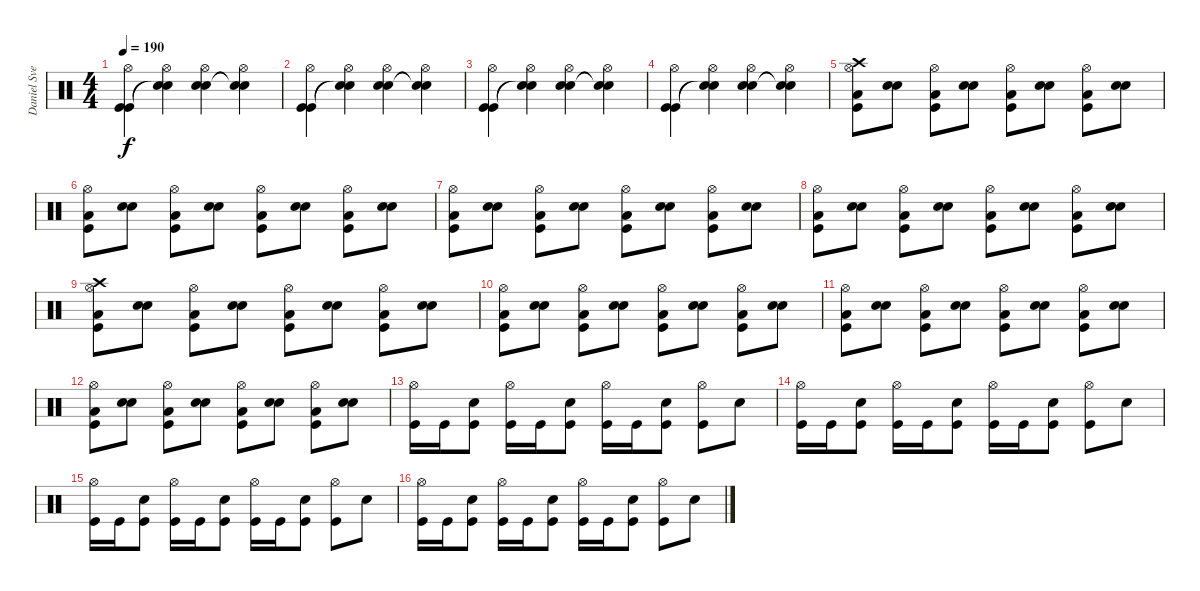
\track ("Daniel Svensson" "Daniel Sve") {instrument percussion}
\staff {score}
\articulation defaults
\ts (4 4)
\tempo 190
\clef neutral
\ks c
("Hi-Hat (open)" "Kick (hit)" "Kick (hit)").4{dy f} ("Hi-Hat (open)" "Snare (hit)"{t} "Snare (hit)"{t}).4 ("Hi-Hat (open)" "Electric Snare (hit)" "Electric Snare (hit)").4 ("Hi-Hat (open)" "Snare (hit)"{t} "Snare (hit)"{t}).4 |
("Hi-Hat (open)" "Kick (hit)" "Kick (hit)").4 ("Hi-Hat (open)" "Snare (hit)"{t} "Snare (hit)"{t}).4 ("Hi-Hat (open)" "Electric Snare (hit)" "Electric Snare (hit)").4 ("Hi-Hat (open)" "Snare (hit)"{t} "Snare (hit)"{t}).4 |
("Hi-Hat (open)" "Kick (hit)" "Kick (hit)").4 ("Hi-Hat (open)" "Snare (hit)"{t} "Snare (hit)"{t}).4 ("Hi-Hat (open)" "Electric Snare (hit)" "Electric Snare (hit)").4 ("Hi-Hat (open)" "Snare (hit)"{t} "Snare (hit)"{t}).4 |
("Hi-Hat (open)" "Kick (hit)" "Kick (hit)").4 ("Hi-Hat (open)" "Snare (hit)"{t} "Snare (hit)"{t}).4 ("Hi-Hat (open)" "Electric Snare (hit)" "Electric Snare (hit)").4 ("Hi-Hat (open)" "Snare (hit)"{t} "Snare (hit)"{t}).4 |
("Crash high (hit)" "Hi-Hat (open)" "Low Floor Tom (hit)" "Kick (hit)").8 ("Electric Snare (hit)" "Electric Snare (hit)").8 ("Hi-Hat (open)" "Low Floor Tom (hit)" "Kick (hit)").8 ("Electric Snare (hit)" "Electric Snare (hit)").8 ("Hi-Hat (open)" "Low Floor Tom (hit)" "Kick (hit)").8 ("Electric Snare (hit)" "Electric Snare (hit)").8 ("Hi-Hat (open)" "Low Floor Tom (hit)" "Kick (hit)").8 ("Electric Snare (hit)" "Electric Snare (hit)").8 |
("Hi-Hat (open)" "Low Floor Tom (hit)" "Kick (hit)").8 ("Electric Snare (hit)" "Electric Snare (hit)").8 ("Hi-Hat (open)" "Low Floor Tom (hit)" "Kick (hit)").8 ("Electric Snare (hit)" "Electric Snare (hit)").8 ("Hi-Hat (open)" "Low Floor Tom (hit)" "Kick (hit)").8 ("Electric Snare (hit)" "Electric Snare (hit)").8 ("Hi-Hat (open)" "Low Floor Tom (hit)" "Kick (hit)").8 ("Electric Snare (hit)" "Electric Snare (hit)").8 |
("Hi-Hat (open)" "Low Floor Tom (hit)" "Kick (hit)").8 ("Electric Snare (hit)" "Electric Snare (hit)").8 ("Hi-Hat (open)" "Low Floor Tom (hit)" "Kick (hit)").8 ("Electric Snare (hit)" "Electric Snare (hit)").8 ("Hi-Hat (open)" "Low Floor Tom (hit)" "Kick (hit)").8 ("Electric Snare (hit)" "Electric Snare (hit)").8 ("Hi-Hat (open)" "Low Floor Tom (hit)" "Kick (hit)").8 ("Electric Snare (hit)" "Electric Snare (hit)").8 |
("Hi-Hat (open)" "Low Floor Tom (hit)" "Kick (hit)").8 ("Electric Snare (hit)" "Electric Snare (hit)").8 ("Hi-Hat (open)" "Low Floor Tom (hit)" "Kick (hit)").8 ("Electric Snare (hit)" "Electric Snare (hit)").8 ("Hi-Hat (open)" "Low Floor Tom (hit)" "Kick (hit)").8 ("Electric Snare (hit)" "Electric Snare (hit)").8 ("Hi-Hat (open)" "Low Floor Tom (hit)" "Kick (hit)").8 ("Electric Snare (hit)" "Electric Snare (hit)").8 |
("Crash high (hit)" "Hi-Hat (open)" "Low Floor Tom (hit)" "Kick (hit)").8 ("Electric Snare (hit)" "Electric Snare (hit)").8 ("Hi-Hat (open)" "Low Floor Tom (hit)" "Kick (hit)").8 ("Electric Snare (hit)" "Electric Snare (hit)").8 ("Hi-Hat (open)" "Low Floor Tom (hit)" "Kick (hit)").8 ("Electric Snare (hit)" "Electric Snare (hit)").8 ("Hi-Hat (open)" "Low Floor Tom (hit)" "Kick (hit)").8 ("Electric Snare (hit)" "Electric Snare (hit)").8 |
("Hi-Hat (open)" "Low Floor Tom (hit)" "Kick (hit)").8 ("Electric Snare (hit)" "Electric Snare (hit)").8 ("Hi-Hat (open)" "Low Floor Tom (hit)" "Kick (hit)").8 ("Electric Snare (hit)" "Electric Snare (hit)").8 ("Hi-Hat (open)" "Low Floor Tom (hit)" "Kick (hit)").8 ("Electric Snare (hit)" "Electric Snare (hit)").8 ("Hi-Hat (open)" "Low Floor Tom (hit)" "Kick (hit)").8 ("Electric Snare (hit)" "Electric Snare (hit)").8 |
("Hi-Hat (open)" "Low Floor Tom (hit)" "Kick (hit)").8 ("Electric Snare (hit)" "Electric Snare (hit)").8 ("Hi-Hat (open)" "Low Floor Tom (hit)" "Kick (hit)").8 ("Electric Snare (hit)" "Electric Snare (hit)").8 ("Hi-Hat (open)" "Low Floor Tom (hit)" "Kick (hit)").8 ("Electric Snare (hit)" "Electric Snare (hit)").8 ("Hi-Hat (open)" "Low Floor Tom (hit)" "Kick (hit)").8 ("Electric Snare (hit)" "Electric Snare (hit)").8 |
("Hi-Hat (open)" "Low Floor Tom (hit)" "Kick (hit)").8 ("Electric Snare (hit)" "Electric Snare (hit)").8 ("Hi-Hat (open)" "Low Floor Tom (hit)" "Kick (hit)").8 ("Electric Snare (hit)" "Electric Snare (hit)").8 ("Hi-Hat (open)" "Low Floor Tom (hit)" "Kick (hit)").8 ("Electric Snare (hit)" "Electric Snare (hit)").8 ("Hi-Hat (open)" "Low Floor Tom (hit)" "Kick (hit)").8 ("Electric Snare (hit)" "Electric Snare (hit)").8 |
("Hi-Hat (open)" "Kick (hit)").16 "Kick (hit)".16 ("Electric Snare (hit)" "Kick (hit)").8 ("Hi-Hat (open)" "Kick (hit)").16 "Kick (hit)".16 ("Electric Snare (hit)" "Kick (hit)").8 ("Hi-Hat (open)" "Kick (hit)").16 "Kick (hit)".16 ("Electric Snare (hit)" "Kick (hit)").8 ("Hi-Hat (open)" "Kick (hit)").8 "Electric Snare (hit)".8 |
("Hi-Hat (open)" "Kick (hit)").16 "Kick (hit)".16 ("Electric Snare (hit)" "Kick (hit)").8 ("Hi-Hat (open)" "Kick (hit)").16 "Kick (hit)".16 ("Electric Snare (hit)" "Kick (hit)").8 ("Hi-Hat (open)" "Kick (hit)").16 "Kick (hit)".16 ("Electric Snare (hit)" "Kick (hit)").8 ("Hi-Hat (open)" "Kick (hit)").8 "Electric Snare (hit)".8 |
("Hi-Hat (open)" "Kick (hit)").16 "Kick (hit)".16 ("Electric Snare (hit)" "Kick (hit)").8 ("Hi-Hat (open)" "Kick (hit)").16 "Kick (hit)".16 ("Electric Snare (hit)" "Kick (hit)").8 ("Hi-Hat (open)" "Kick (hit)").16 "Kick (hit)".16 ("Electric Snare (hit)" "Kick (hit)").8 ("Hi-Hat (open)" "Kick (hit)").8 "Electric Snare (hit)".8 |
("Hi-Hat (open)" "Kick (hit)").16 "Kick (hit)".16 ("Electric Snare (hit)" "Kick (hit)").8 ("Hi-Hat (open)" "Kick (hit)").16 "Kick (hit)".16 ("Electric Snare (hit)" "Kick (hit)").8 ("Hi-Hat (open)" "Kick (hit)").16 "Kick (hit)".16 ("Electric Snare (hit)" "Kick (hit)").8 ("Hi-Hat (open)" "Kick (hit)").8 "Electric Snare (hit)".8
